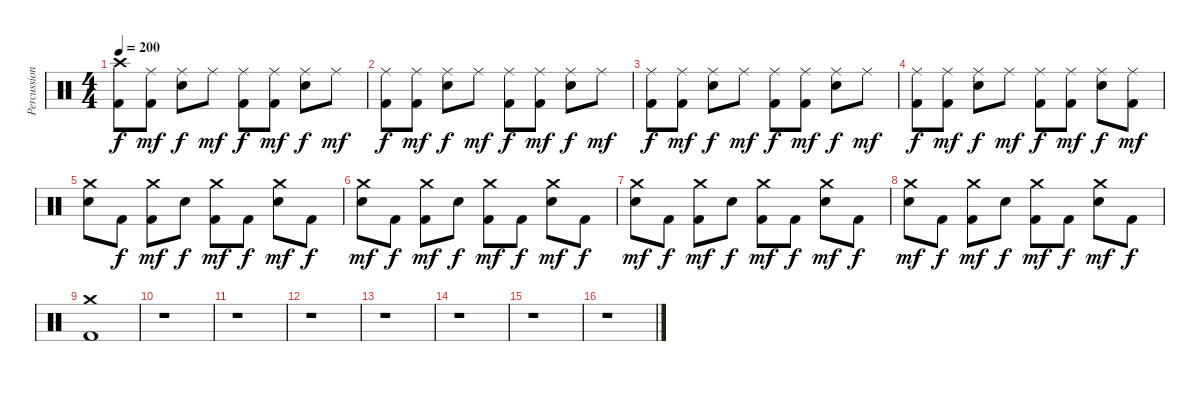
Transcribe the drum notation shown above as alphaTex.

\track ("Percussions" "Percussion") {instrument percussion}
\staff {score}
\articulation defaults
\ts (4 4)
\tempo 200
\clef neutral
\ks c
("Crash high (hit)" "Kick (hit) 2").8{dy f} ("Ride (middle)" "Kick (hit) 2").8{dy mf} ("Ride (middle)" "Snare (hit) 2").8{dy f} "Ride (middle)".8{dy mf} ("Ride (middle)" "Kick (hit) 2").8{dy f} ("Ride (middle)" "Kick (hit) 2").8{dy mf} ("Ride (middle)" "Snare (hit) 2").8{dy f} "Ride (middle)".8{dy mf} |
("Ride (middle)" "Kick (hit) 2").8{dy f} ("Ride (middle)" "Kick (hit) 2").8{dy mf} ("Ride (middle)" "Snare (hit) 2").8{dy f} "Ride (middle)".8{dy mf} ("Ride (middle)" "Kick (hit) 2").8{dy f} ("Ride (middle)" "Kick (hit) 2").8{dy mf} ("Ride (middle)" "Snare (hit) 2").8{dy f} "Ride (middle)".8{dy mf} |
("Ride (middle)" "Kick (hit) 2").8{dy f} ("Ride (middle)" "Kick (hit) 2").8{dy mf} ("Ride (middle)" "Snare (hit) 2").8{dy f} "Ride (middle)".8{dy mf} ("Ride (middle)" "Kick (hit) 2").8{dy f} ("Ride (middle)" "Kick (hit) 2").8{dy mf} ("Ride (middle)" "Snare (hit) 2").8{dy f} "Ride (middle)".8{dy mf} |
("Ride (middle)" "Kick (hit) 2").8{dy f} ("Ride (middle)" "Kick (hit) 2").8{dy mf} ("Ride (middle)" "Snare (hit) 2").8{dy f} "Ride (middle)".8{dy mf} ("Ride (middle)" "Kick (hit) 2").8{dy f} ("Ride (middle)" "Kick (hit) 2").8{dy mf} ("Ride (middle)" "Snare (hit) 2").8{dy f} ("Ride (middle)" "Kick (hit) 2").8{dy mf} |
("Crash medium (hit)" "Snare (hit) 2").8 "Kick (hit) 2".8{dy f} ("Crash medium (hit)" "Kick (hit) 2").8{dy mf} "Snare (hit) 2".8{dy f} ("Crash medium (hit)" "Kick (hit) 2").8{dy mf} "Kick (hit) 2".8{dy f} ("Crash medium (hit)" "Snare (hit) 2").8{dy mf} "Kick (hit) 2".8{dy f} |
("Crash medium (hit)" "Snare (hit) 2").8{dy mf} "Kick (hit) 2".8{dy f} ("Crash medium (hit)" "Kick (hit) 2").8{dy mf} "Snare (hit) 2".8{dy f} ("Crash medium (hit)" "Kick (hit) 2").8{dy mf} "Kick (hit) 2".8{dy f} ("Crash medium (hit)" "Snare (hit) 2").8{dy mf} "Kick (hit) 2".8{dy f} |
("Crash medium (hit)" "Snare (hit) 2").8{dy mf} "Kick (hit) 2".8{dy f} ("Crash medium (hit)" "Kick (hit) 2").8{dy mf} "Snare (hit) 2".8{dy f} ("Crash medium (hit)" "Kick (hit) 2").8{dy mf} "Kick (hit) 2".8{dy f} ("Crash medium (hit)" "Snare (hit) 2").8{dy mf} "Kick (hit) 2".8{dy f} |
("Crash medium (hit)" "Snare (hit) 2").8{dy mf} "Kick (hit) 2".8{dy f} ("Crash medium (hit)" "Kick (hit) 2").8{dy mf} "Snare (hit) 2".8{dy f} ("Crash medium (hit)" "Kick (hit) 2").8{dy mf} "Kick (hit) 2".8{dy f} ("Crash medium (hit)" "Snare (hit) 2").8{dy mf} "Kick (hit) 2".8{dy f} |
("Crash medium (hit)" "Kick (hit) 2").1 |
r.1 |
r.1 |
r.1 |
r.1 |
r.1 |
r.1 |
r.1
